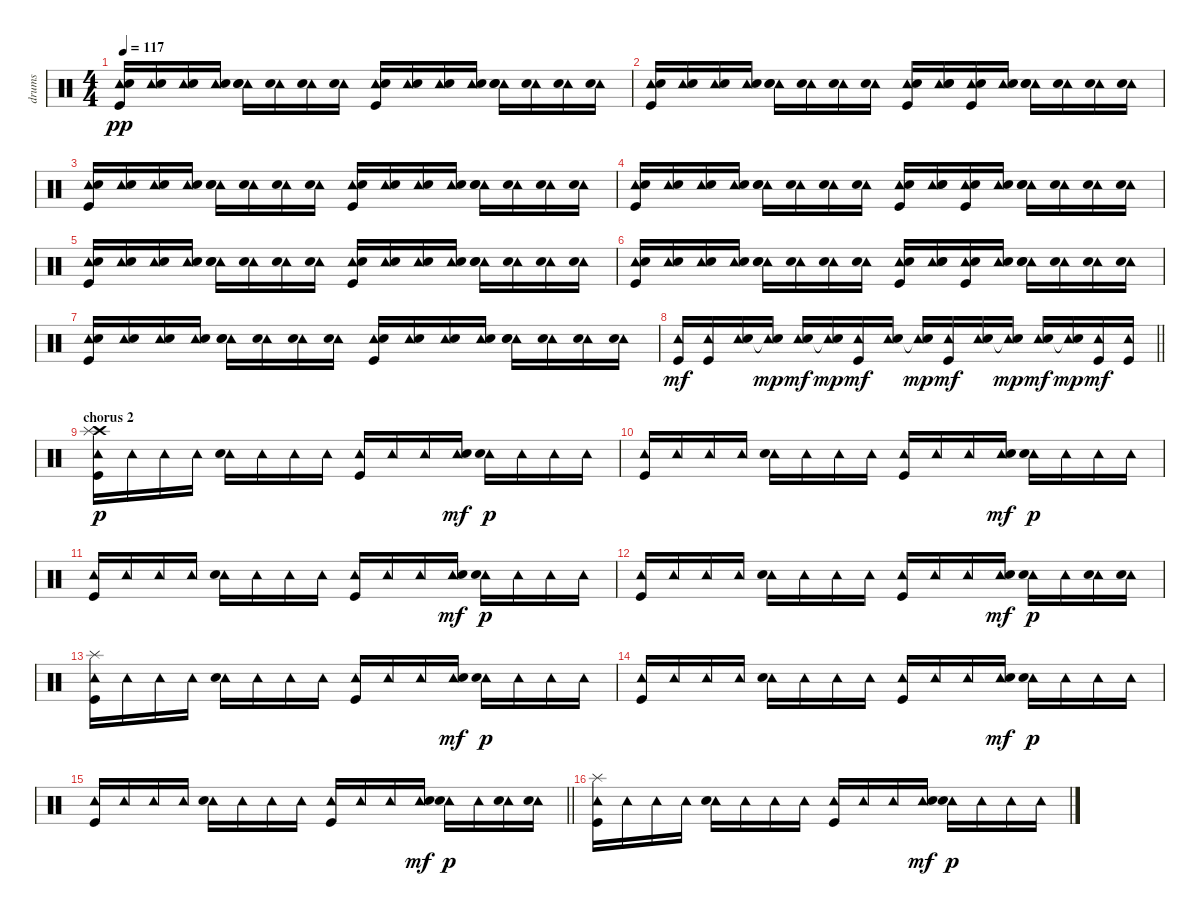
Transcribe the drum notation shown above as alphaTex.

\track ("drums" "drums") {instrument percussion}
\staff {score}
\articulation defaults
\ts (4 4)
\tempo 117
\clef neutral
\ks c
("Tambourine (hit)" "Electric Snare (hit)" "Kick (hit)").16{dy pp} ("Tambourine (hit)" "Electric Snare (hit)").16 ("Tambourine (hit)" "Electric Snare (hit)").16 ("Tambourine (hit)" "Electric Snare (hit)").16 ("Tambourine (hit)" "Snare (hit) 2" "Electric Snare (hit)").16 ("Tambourine (hit)" "Electric Snare (hit)").16 ("Tambourine (hit)" "Electric Snare (hit)").16 ("Tambourine (hit)" "Electric Snare (hit)").16 ("Tambourine (hit)" "Electric Snare (hit)" "Kick (hit)").16 ("Tambourine (hit)" "Electric Snare (hit)").16 ("Tambourine (hit)" "Electric Snare (hit)").16 ("Tambourine (hit)" "Electric Snare (hit)").16 ("Tambourine (hit)" "Snare (hit) 2" "Electric Snare (hit)").16 ("Tambourine (hit)" "Electric Snare (hit)").16 ("Tambourine (hit)" "Electric Snare (hit)").16 ("Tambourine (hit)" "Electric Snare (hit)").16 |
("Tambourine (hit)" "Electric Snare (hit)" "Kick (hit)").16 ("Tambourine (hit)" "Electric Snare (hit)").16 ("Tambourine (hit)" "Electric Snare (hit)").16 ("Tambourine (hit)" "Electric Snare (hit)").16 ("Tambourine (hit)" "Snare (hit) 2" "Electric Snare (hit)").16 ("Tambourine (hit)" "Electric Snare (hit)").16 ("Tambourine (hit)" "Electric Snare (hit)").16 ("Tambourine (hit)" "Electric Snare (hit)").16 ("Tambourine (hit)" "Electric Snare (hit)" "Kick (hit)").16 ("Tambourine (hit)" "Snare (hit) 2" "Electric Snare (hit)").16 ("Tambourine (hit)" "Electric Snare (hit)" "Kick (hit)").16 ("Tambourine (hit)" "Electric Snare (hit)").16 ("Tambourine (hit)" "Snare (hit) 2" "Electric Snare (hit)").16 ("Tambourine (hit)" "Electric Snare (hit)").16 ("Tambourine (hit)" "Electric Snare (hit)").16 ("Tambourine (hit)" "Electric Snare (hit)").16 |
("Tambourine (hit)" "Electric Snare (hit)" "Kick (hit)").16 ("Tambourine (hit)" "Electric Snare (hit)").16 ("Tambourine (hit)" "Electric Snare (hit)").16 ("Tambourine (hit)" "Electric Snare (hit)").16 ("Tambourine (hit)" "Snare (hit) 2" "Electric Snare (hit)").16 ("Tambourine (hit)" "Electric Snare (hit)").16 ("Tambourine (hit)" "Electric Snare (hit)").16 ("Tambourine (hit)" "Electric Snare (hit)").16 ("Tambourine (hit)" "Electric Snare (hit)" "Kick (hit)").16 ("Tambourine (hit)" "Electric Snare (hit)").16 ("Tambourine (hit)" "Electric Snare (hit)").16 ("Tambourine (hit)" "Electric Snare (hit)").16 ("Tambourine (hit)" "Snare (hit) 2" "Electric Snare (hit)").16 ("Tambourine (hit)" "Electric Snare (hit)").16 ("Tambourine (hit)" "Electric Snare (hit)").16 ("Tambourine (hit)" "Electric Snare (hit)").16 |
("Tambourine (hit)" "Electric Snare (hit)" "Kick (hit)").16 ("Tambourine (hit)" "Electric Snare (hit)").16 ("Tambourine (hit)" "Electric Snare (hit)").16 ("Tambourine (hit)" "Electric Snare (hit)").16 ("Tambourine (hit)" "Snare (hit) 2" "Electric Snare (hit)").16 ("Tambourine (hit)" "Electric Snare (hit)").16 ("Tambourine (hit)" "Electric Snare (hit)").16 ("Tambourine (hit)" "Electric Snare (hit)").16 ("Tambourine (hit)" "Electric Snare (hit)" "Kick (hit)").16 ("Tambourine (hit)" "Snare (hit) 2" "Electric Snare (hit)").16 ("Tambourine (hit)" "Electric Snare (hit)" "Kick (hit)").16 ("Tambourine (hit)" "Electric Snare (hit)").16 ("Tambourine (hit)" "Snare (hit) 2" "Electric Snare (hit)").16 ("Tambourine (hit)" "Electric Snare (hit)").16 ("Tambourine (hit)" "Electric Snare (hit)").16 ("Tambourine (hit)" "Electric Snare (hit)").16 |
("Tambourine (hit)" "Electric Snare (hit)" "Kick (hit)").16 ("Tambourine (hit)" "Electric Snare (hit)").16 ("Tambourine (hit)" "Electric Snare (hit)").16 ("Tambourine (hit)" "Electric Snare (hit)").16 ("Tambourine (hit)" "Snare (hit) 2" "Electric Snare (hit)").16 ("Tambourine (hit)" "Electric Snare (hit)").16 ("Tambourine (hit)" "Electric Snare (hit)").16 ("Tambourine (hit)" "Electric Snare (hit)").16 ("Tambourine (hit)" "Electric Snare (hit)" "Kick (hit)").16 ("Tambourine (hit)" "Electric Snare (hit)").16 ("Tambourine (hit)" "Electric Snare (hit)").16 ("Tambourine (hit)" "Electric Snare (hit)").16 ("Tambourine (hit)" "Snare (hit) 2" "Electric Snare (hit)").16 ("Tambourine (hit)" "Electric Snare (hit)").16 ("Tambourine (hit)" "Electric Snare (hit)").16 ("Tambourine (hit)" "Electric Snare (hit)").16 |
("Tambourine (hit)" "Electric Snare (hit)" "Kick (hit)").16 ("Tambourine (hit)" "Electric Snare (hit)").16 ("Tambourine (hit)" "Electric Snare (hit)").16 ("Tambourine (hit)" "Electric Snare (hit)").16 ("Tambourine (hit)" "Snare (hit) 2" "Electric Snare (hit)").16 ("Tambourine (hit)" "Electric Snare (hit)").16 ("Tambourine (hit)" "Electric Snare (hit)").16 ("Tambourine (hit)" "Electric Snare (hit)").16 ("Tambourine (hit)" "Electric Snare (hit)" "Kick (hit)").16 ("Tambourine (hit)" "Snare (hit) 2" "Electric Snare (hit)").16 ("Tambourine (hit)" "Electric Snare (hit)" "Kick (hit)").16 ("Tambourine (hit)" "Electric Snare (hit)").16 ("Tambourine (hit)" "Snare (hit) 2" "Electric Snare (hit)").16 ("Tambourine (hit)" "Electric Snare (hit)").16 ("Tambourine (hit)" "Electric Snare (hit)").16 ("Tambourine (hit)" "Electric Snare (hit)").16 |
("Tambourine (hit)" "Electric Snare (hit)" "Kick (hit)").16 ("Tambourine (hit)" "Electric Snare (hit)").16 ("Tambourine (hit)" "Electric Snare (hit)").16 ("Tambourine (hit)" "Electric Snare (hit)").16 ("Tambourine (hit)" "Snare (hit) 2" "Electric Snare (hit)").16 ("Tambourine (hit)" "Electric Snare (hit)").16 ("Tambourine (hit)" "Electric Snare (hit)").16 ("Tambourine (hit)" "Electric Snare (hit)").16 ("Tambourine (hit)" "Electric Snare (hit)" "Kick (hit)").16 ("Tambourine (hit)" "Electric Snare (hit)").16 ("Tambourine (hit)" "Electric Snare (hit)").16 ("Tambourine (hit)" "Electric Snare (hit)").16 ("Tambourine (hit)" "Snare (hit) 2" "Electric Snare (hit)").16 ("Tambourine (hit)" "Electric Snare (hit)").16 ("Tambourine (hit)" "Electric Snare (hit)").16 ("Tambourine (hit)" "Electric Snare (hit)").16 |
\barLineRight lightlight
("Tambourine (hit)" "Kick (hit)").16{dy mf} ("Tambourine (hit)" "Kick (hit)").16 ("Tambourine (hit)" "Electric Snare (hit)").16 ("Tambourine (hit)" "Electric Snare (hit)"{t}).16{dy mp} ("Tambourine (hit)" "Electric Snare (hit)").16{dy mf} ("Tambourine (hit)" "Electric Snare (hit)"{t}).16{dy mp} ("Tambourine (hit)" "Kick (hit)").16{dy mf} ("Tambourine (hit)" "Electric Snare (hit)").16 ("Tambourine (hit)" "Electric Snare (hit)"{t}).16{dy mp} ("Tambourine (hit)" "Kick (hit)").16{dy mf} ("Tambourine (hit)" "Electric Snare (hit)").16 ("Tambourine (hit)" "Electric Snare (hit)"{t}).16{dy mp} ("Tambourine (hit)" "Electric Snare (hit)").16{dy mf} ("Tambourine (hit)" "Electric Snare (hit)"{t}).16{dy mp} ("Tambourine (hit)" "Kick (hit)").16{dy mf} ("Tambourine (hit)" "Kick (hit)").16 |
\section ("" "chorus 2")
("Crash high (hit)" "Splash (hit)" "Tambourine (hit)" "Kick (hit)").16{dy p} "Tambourine (hit)".16 "Tambourine (hit)".16 "Tambourine (hit)".16 ("Tambourine (hit)" "Snare (hit) 2").16 "Tambourine (hit)".16 "Tambourine (hit)".16 "Tambourine (hit)".16 ("Tambourine (hit)" "Kick (hit)").16 "Tambourine (hit)".16 "Tambourine (hit)".16 ("Tambourine (hit)" "Electric Snare (hit)").16{dy mf} ("Tambourine (hit)" "Electric Snare (hit)").16{dy p} "Tambourine (hit)".16 "Tambourine (hit)".16 "Tambourine (hit)".16 |
("Tambourine (hit)" "Kick (hit)").16 "Tambourine (hit)".16 "Tambourine (hit)".16 "Tambourine (hit)".16 ("Tambourine (hit)" "Snare (hit) 2").16 "Tambourine (hit)".16 "Tambourine (hit)".16 "Tambourine (hit)".16 ("Tambourine (hit)" "Kick (hit)").16 "Tambourine (hit)".16 "Tambourine (hit)".16 ("Tambourine (hit)" "Electric Snare (hit)").16{dy mf} ("Tambourine (hit)" "Electric Snare (hit)").16{dy p} "Tambourine (hit)".16 "Tambourine (hit)".16 "Tambourine (hit)".16 |
("Tambourine (hit)" "Kick (hit)").16 "Tambourine (hit)".16 "Tambourine (hit)".16 "Tambourine (hit)".16 ("Tambourine (hit)" "Snare (hit) 2").16 "Tambourine (hit)".16 "Tambourine (hit)".16 "Tambourine (hit)".16 ("Tambourine (hit)" "Kick (hit)").16 "Tambourine (hit)".16 "Tambourine (hit)".16 ("Tambourine (hit)" "Electric Snare (hit)").16{dy mf} ("Tambourine (hit)" "Electric Snare (hit)").16{dy p} "Tambourine (hit)".16 "Tambourine (hit)".16 "Tambourine (hit)".16 |
("Tambourine (hit)" "Kick (hit)").16 "Tambourine (hit)".16 "Tambourine (hit)".16 "Tambourine (hit)".16 ("Tambourine (hit)" "Snare (hit) 2").16 "Tambourine (hit)".16 "Tambourine (hit)".16 "Tambourine (hit)".16 ("Tambourine (hit)" "Kick (hit)").16 "Tambourine (hit)".16 "Tambourine (hit)".16 ("Tambourine (hit)" "Electric Snare (hit)").16{dy mf} ("Tambourine (hit)" "Electric Snare (hit)").16{dy p} "Tambourine (hit)".16 ("Tambourine (hit)" "Electric Snare (hit)").16 ("Tambourine (hit)" "Electric Snare (hit)").16 |
("Splash (hit)" "Tambourine (hit)" "Kick (hit)").16 "Tambourine (hit)".16 "Tambourine (hit)".16 "Tambourine (hit)".16 ("Tambourine (hit)" "Snare (hit) 2").16 "Tambourine (hit)".16 "Tambourine (hit)".16 "Tambourine (hit)".16 ("Tambourine (hit)" "Kick (hit)").16 "Tambourine (hit)".16 "Tambourine (hit)".16 ("Tambourine (hit)" "Electric Snare (hit)").16{dy mf} ("Tambourine (hit)" "Electric Snare (hit)").16{dy p} "Tambourine (hit)".16 "Tambourine (hit)".16 "Tambourine (hit)".16 |
("Tambourine (hit)" "Kick (hit)").16 "Tambourine (hit)".16 "Tambourine (hit)".16 "Tambourine (hit)".16 ("Tambourine (hit)" "Snare (hit) 2").16 "Tambourine (hit)".16 "Tambourine (hit)".16 "Tambourine (hit)".16 ("Tambourine (hit)" "Kick (hit)").16 "Tambourine (hit)".16 "Tambourine (hit)".16 ("Tambourine (hit)" "Electric Snare (hit)").16{dy mf} ("Tambourine (hit)" "Electric Snare (hit)").16{dy p} "Tambourine (hit)".16 "Tambourine (hit)".16 "Tambourine (hit)".16 |
\barLineRight lightlight
("Tambourine (hit)" "Kick (hit)").16 "Tambourine (hit)".16 "Tambourine (hit)".16 "Tambourine (hit)".16 ("Tambourine (hit)" "Snare (hit) 2").16 "Tambourine (hit)".16 "Tambourine (hit)".16 "Tambourine (hit)".16 ("Tambourine (hit)" "Kick (hit)").16 "Tambourine (hit)".16 "Tambourine (hit)".16 ("Tambourine (hit)" "Electric Snare (hit)").16{dy mf} ("Tambourine (hit)" "Electric Snare (hit)").16{dy p} "Tambourine (hit)".16 ("Tambourine (hit)" "Electric Snare (hit)").16 ("Tambourine (hit)" "Electric Snare (hit)").16 |
("Splash (hit)" "Tambourine (hit)" "Kick (hit)").16 "Tambourine (hit)".16 "Tambourine (hit)".16 "Tambourine (hit)".16 ("Tambourine (hit)" "Snare (hit) 2").16 "Tambourine (hit)".16 "Tambourine (hit)".16 "Tambourine (hit)".16 ("Tambourine (hit)" "Kick (hit)").16 "Tambourine (hit)".16 "Tambourine (hit)".16 ("Tambourine (hit)" "Electric Snare (hit)").16{dy mf} ("Tambourine (hit)" "Electric Snare (hit)").16{dy p} "Tambourine (hit)".16 "Tambourine (hit)".16 "Tambourine (hit)".16
